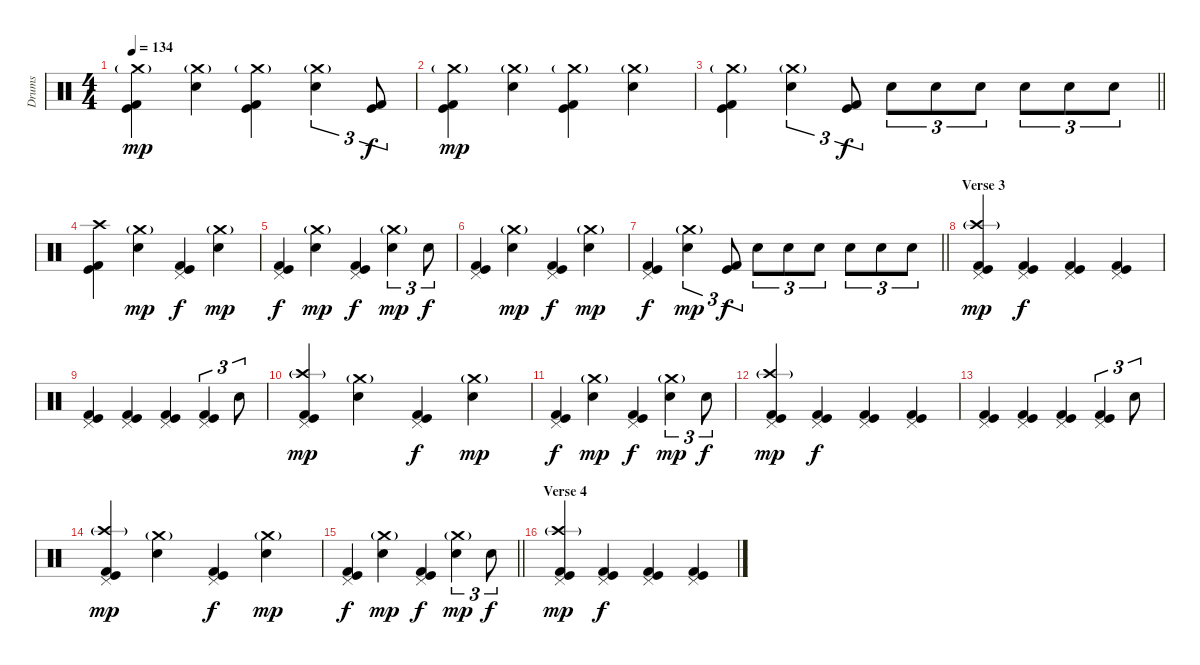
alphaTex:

\track ("Drums" "Drums") {instrument percussion}
\staff {score}
\articulation defaults
\ts (4 4)
\tempo 134
\clef neutral
\ks c
("Crash medium (hit)"{g} "Kick (hit)" "Kick (hit) 2").4{dy mp} ("Crash medium (hit)"{g} "Electric Snare (hit)").4 ("Crash medium (hit)"{g} "Kick (hit)" "Kick (hit) 2").4 ("Crash medium (hit)"{g} "Electric Snare (hit)").4{tu (3 2)} ("Kick (hit)" "Kick (hit) 2").8{tu (3 2) dy f} |
("Crash medium (hit)"{g} "Kick (hit)" "Kick (hit) 2").4{dy mp} ("Crash medium (hit)"{g} "Electric Snare (hit)").4 ("Crash medium (hit)"{g} "Kick (hit)" "Kick (hit) 2").4 ("Crash medium (hit)"{g} "Electric Snare (hit)").4 |
\barLineRight lightlight
("Crash medium (hit)"{g} "Kick (hit)" "Kick (hit) 2").4 ("Crash medium (hit)"{g} "Electric Snare (hit)").4{tu (3 2)} ("Kick (hit)" "Kick (hit) 2").8{tu (3 2) dy f} "Electric Snare (hit)".8{tu (3 2)} "Electric Snare (hit)".8{tu (3 2)} "Electric Snare (hit)".8{tu (3 2)} "Electric Snare (hit)".8{tu (3 2)} "Electric Snare (hit)".8{tu (3 2)} "Electric Snare (hit)".8{tu (3 2)} |
\section ("" "")
("Crash high (hit)" "Kick (hit)" "Kick (hit) 2").4 ("Crash medium (hit)"{g} "Electric Snare (hit)").4{dy mp} ("Pedal Hi-Hat (hit)" "Kick (hit)" "Kick (hit) 2").4{dy f} ("Crash medium (hit)"{g} "Electric Snare (hit)").4{dy mp} |
("Pedal Hi-Hat (hit)" "Kick (hit)" "Kick (hit) 2").4{dy f} ("Crash medium (hit)"{g} "Electric Snare (hit)").4{dy mp} ("Pedal Hi-Hat (hit)" "Kick (hit)" "Kick (hit) 2").4{dy f} ("Crash medium (hit)"{g} "Electric Snare (hit)").4{tu (3 2) dy mp} "Electric Snare (hit)".8{tu (3 2) dy f} |
("Pedal Hi-Hat (hit)" "Kick (hit)" "Kick (hit) 2").4 ("Crash medium (hit)"{g} "Electric Snare (hit)").4{dy mp} ("Pedal Hi-Hat (hit)" "Kick (hit)" "Kick (hit) 2").4{dy f} ("Crash medium (hit)"{g} "Electric Snare (hit)").4{dy mp} |
\barLineRight lightlight
("Pedal Hi-Hat (hit)" "Kick (hit)" "Kick (hit) 2").4{dy f} ("Crash medium (hit)"{g} "Electric Snare (hit)").4{tu (3 2) dy mp} ("Kick (hit)" "Kick (hit) 2").8{tu (3 2) dy f} "Electric Snare (hit)".8{tu (3 2)} "Electric Snare (hit)".8{tu (3 2)} "Electric Snare (hit)".8{tu (3 2)} "Electric Snare (hit)".8{tu (3 2)} "Electric Snare (hit)".8{tu (3 2)} "Electric Snare (hit)".8{tu (3 2)} |
\section ("" "Verse 3")
("Pedal Hi-Hat (hit)" "Crash high (hit)"{g} "Kick (hit)" "Kick (hit) 2").4{dy mp} ("Pedal Hi-Hat (hit)" "Kick (hit)" "Kick (hit) 2").4{dy f} ("Pedal Hi-Hat (hit)" "Kick (hit)" "Kick (hit) 2").4 ("Pedal Hi-Hat (hit)" "Kick (hit)" "Kick (hit) 2").4 |
("Pedal Hi-Hat (hit)" "Kick (hit)" "Kick (hit) 2").4 ("Pedal Hi-Hat (hit)" "Kick (hit)" "Kick (hit) 2").4 ("Pedal Hi-Hat (hit)" "Kick (hit)" "Kick (hit) 2").4 ("Pedal Hi-Hat (hit)" "Kick (hit)" "Kick (hit) 2").4{tu (3 2)} "Electric Snare (hit)".8{tu (3 2)} |
("Pedal Hi-Hat (hit)" "Crash high (hit)"{g} "Kick (hit)" "Kick (hit) 2").4{dy mp} ("Crash medium (hit)"{g} "Electric Snare (hit)").4 ("Pedal Hi-Hat (hit)" "Kick (hit)" "Kick (hit) 2").4{dy f} ("Crash medium (hit)"{g} "Electric Snare (hit)").4{dy mp} |
("Pedal Hi-Hat (hit)" "Kick (hit)" "Kick (hit) 2").4{dy f} ("Crash medium (hit)"{g} "Electric Snare (hit)").4{dy mp} ("Pedal Hi-Hat (hit)" "Kick (hit)" "Kick (hit) 2").4{dy f} ("Crash medium (hit)"{g} "Electric Snare (hit)").4{tu (3 2) dy mp} "Electric Snare (hit)".8{tu (3 2) dy f} |
("Pedal Hi-Hat (hit)" "Crash high (hit)"{g} "Kick (hit)" "Kick (hit) 2").4{dy mp} ("Pedal Hi-Hat (hit)" "Kick (hit)" "Kick (hit) 2").4{dy f} ("Pedal Hi-Hat (hit)" "Kick (hit)" "Kick (hit) 2").4 ("Pedal Hi-Hat (hit)" "Kick (hit)" "Kick (hit) 2").4 |
("Pedal Hi-Hat (hit)" "Kick (hit)" "Kick (hit) 2").4 ("Pedal Hi-Hat (hit)" "Kick (hit)" "Kick (hit) 2").4 ("Pedal Hi-Hat (hit)" "Kick (hit)" "Kick (hit) 2").4 ("Pedal Hi-Hat (hit)" "Kick (hit)" "Kick (hit) 2").4{tu (3 2)} "Electric Snare (hit)".8{tu (3 2)} |
("Pedal Hi-Hat (hit)" "Crash high (hit)"{g} "Kick (hit)" "Kick (hit) 2").4{dy mp} ("Crash medium (hit)"{g} "Electric Snare (hit)").4 ("Pedal Hi-Hat (hit)" "Kick (hit)" "Kick (hit) 2").4{dy f} ("Crash medium (hit)"{g} "Electric Snare (hit)").4{dy mp} |
\barLineRight lightlight
("Pedal Hi-Hat (hit)" "Kick (hit)" "Kick (hit) 2").4{dy f} ("Crash medium (hit)"{g} "Electric Snare (hit)").4{dy mp} ("Pedal Hi-Hat (hit)" "Kick (hit)" "Kick (hit) 2").4{dy f} ("Crash medium (hit)"{g} "Electric Snare (hit)").4{tu (3 2) dy mp} "Electric Snare (hit)".8{tu (3 2) dy f} |
\section ("" "Verse 4")
("Pedal Hi-Hat (hit)" "Crash high (hit)"{g} "Kick (hit)" "Kick (hit) 2").4{dy mp} ("Pedal Hi-Hat (hit)" "Kick (hit)" "Kick (hit) 2").4{dy f} ("Pedal Hi-Hat (hit)" "Kick (hit)" "Kick (hit) 2").4 ("Pedal Hi-Hat (hit)" "Kick (hit)" "Kick (hit) 2").4
